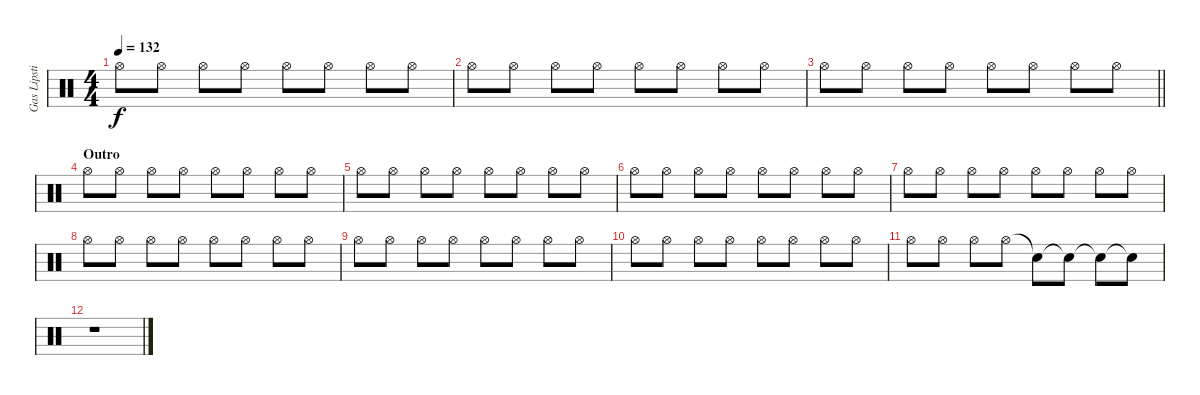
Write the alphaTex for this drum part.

\track ("Gas Lipstick (Drums)" "Gas Lipsti") {instrument percussion}
\staff {score}
\articulation defaults
\ts (4 4)
\tempo 132
\clef neutral
\ks c "Hi-Hat (open)".8{dy f} "Hi-Hat (open)".8 "Hi-Hat (open)".8 "Hi-Hat (open)".8 "Hi-Hat (open)".8 "Hi-Hat (open)".8 "Hi-Hat (open)".8 "Hi-Hat (open)".8
|
"Hi-Hat (open)".8 "Hi-Hat (open)".8 "Hi-Hat (open)".8 "Hi-Hat (open)".8 "Hi-Hat (open)".8 "Hi-Hat (open)".8 "Hi-Hat (open)".8 "Hi-Hat (open)".8 |
\barLineRight lightlight "Hi-Hat (open)".8 "Hi-Hat (open)".8 "Hi-Hat (open)".8 "Hi-Hat (open)".8 "Hi-Hat (open)".8 "Hi-Hat (open)".8 "Hi-Hat (open)".8 "Hi-Hat (open)".8
|
\section ("" "Outro")
"Hi-Hat (open)".8 "Hi-Hat (open)".8 "Hi-Hat (open)".8 "Hi-Hat (open)".8 "Hi-Hat (open)".8 "Hi-Hat (open)".8 "Hi-Hat (open)".8 "Hi-Hat (open)".8 |
"Hi-Hat (open)".8 "Hi-Hat (open)".8 "Hi-Hat (open)".8 "Hi-Hat (open)".8 "Hi-Hat (open)".8 "Hi-Hat (open)".8 "Hi-Hat (open)".8 "Hi-Hat (open)".8 |
"Hi-Hat (open)".8 "Hi-Hat (open)".8 "Hi-Hat (open)".8 "Hi-Hat (open)".8 "Hi-Hat (open)".8 "Hi-Hat (open)".8 "Hi-Hat (open)".8 "Hi-Hat (open)".8 |
"Hi-Hat (open)".8 "Hi-Hat (open)".8 "Hi-Hat (open)".8 "Hi-Hat (open)".8 "Hi-Hat (open)".8 "Hi-Hat (open)".8 "Hi-Hat (open)".8 "Hi-Hat (open)".8 |
"Hi-Hat (open)".8 "Hi-Hat (open)".8 "Hi-Hat (open)".8 "Hi-Hat (open)".8 "Hi-Hat (open)".8 "Hi-Hat (open)".8 "Hi-Hat (open)".8 "Hi-Hat (open)".8 |
"Hi-Hat (open)".8 "Hi-Hat (open)".8 "Hi-Hat (open)".8 "Hi-Hat (open)".8 "Hi-Hat (open)".8 "Hi-Hat (open)".8 "Hi-Hat (open)".8 "Hi-Hat (open)".8 |
"Hi-Hat (open)".8 "Hi-Hat (open)".8 "Hi-Hat (open)".8 "Hi-Hat (open)".8 "Hi-Hat (open)".8 "Hi-Hat (open)".8 "Hi-Hat (open)".8 "Hi-Hat (open)".8 |
"Hi-Hat (open)".8 "Hi-Hat (open)".8 "Hi-Hat (open)".8 "Hi-Hat (open)".8 "Snare (hit)"{t}.8 "Snare (hit)"{t}.8 "Snare (hit)"{t}.8 "Snare (hit)"{t}.8 |
r.1
